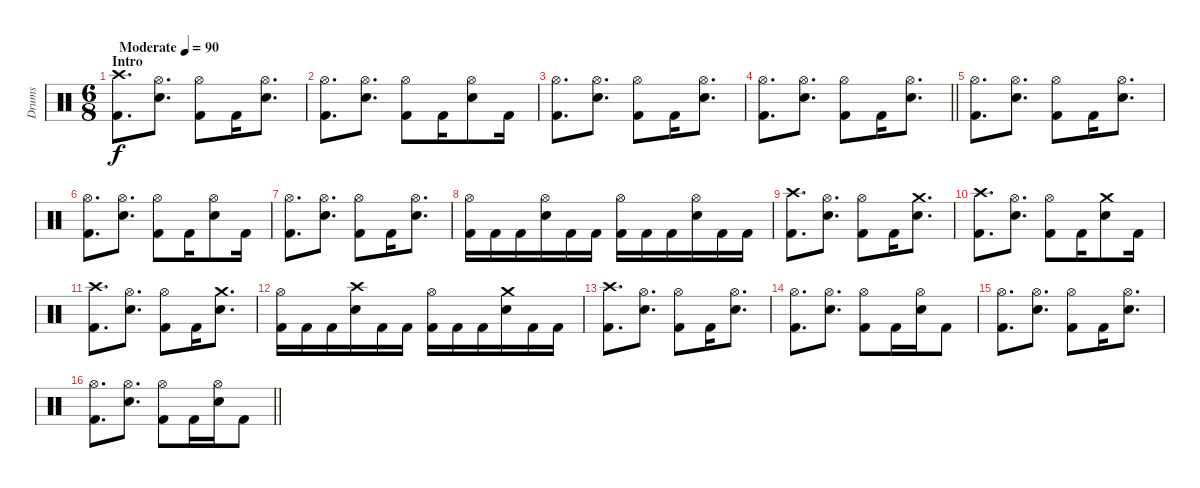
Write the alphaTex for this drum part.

\track ("Drums" "Drums") {instrument percussion}
\staff {score}
\articulation defaults
\ts (6 8)
\section ("" "Intro")
\tempo (90 "Moderate")
\clef neutral
\ks c
("Kick (hit) 2" "Crash high (hit)").8{d dy f} ("Electric Snare (hit)" "Hi-Hat (open)").8{d} ("Kick (hit) 2" "Hi-Hat (open)").8 "Kick (hit) 2".16 ("Electric Snare (hit)" "Hi-Hat (open)").8{d} |
("Kick (hit) 2" "Hi-Hat (open)").8{d} ("Electric Snare (hit)" "Hi-Hat (open)").8{d} ("Kick (hit) 2" "Hi-Hat (open)").8 "Kick (hit) 2".16 ("Electric Snare (hit)" "Hi-Hat (open)").8 "Kick (hit) 2".16 |
("Kick (hit) 2" "Hi-Hat (open)").8{d} ("Electric Snare (hit)" "Hi-Hat (open)").8{d} ("Kick (hit) 2" "Hi-Hat (open)").8 "Kick (hit) 2".16 ("Electric Snare (hit)" "Hi-Hat (open)").8{d} |
\barLineRight lightlight
("Kick (hit) 2" "Hi-Hat (open)").8{d} ("Electric Snare (hit)" "Hi-Hat (open)").8{d} ("Kick (hit) 2" "Hi-Hat (open)").8 "Kick (hit) 2".16 ("Electric Snare (hit)" "Hi-Hat (open)").8{d} |
\section ("" "")
("Kick (hit) 2" "Hi-Hat (open)").8{d} ("Electric Snare (hit)" "Hi-Hat (open)").8{d} ("Kick (hit) 2" "Hi-Hat (open)").8 "Kick (hit) 2".16 ("Electric Snare (hit)" "Hi-Hat (open)").8{d} |
("Kick (hit) 2" "Hi-Hat (open)").8{d} ("Electric Snare (hit)" "Hi-Hat (open)").8{d} ("Kick (hit) 2" "Hi-Hat (open)").8 "Kick (hit) 2".16 ("Electric Snare (hit)" "Hi-Hat (open)").8 "Kick (hit) 2".16 |
("Kick (hit) 2" "Hi-Hat (open)").8{d} ("Electric Snare (hit)" "Hi-Hat (open)").8{d} ("Kick (hit) 2" "Hi-Hat (open)").8 "Kick (hit) 2".16 ("Electric Snare (hit)" "Hi-Hat (open)").8{d} |
("Kick (hit) 2" "Hi-Hat (open)").16 "Kick (hit) 2".16 "Kick (hit) 2".16 ("Electric Snare (hit)" "Hi-Hat (open)").16 "Kick (hit) 2".16 "Kick (hit) 2".16 ("Kick (hit) 2" "Hi-Hat (open)").16 "Kick (hit) 2".16 "Kick (hit) 2".16 ("Electric Snare (hit)" "Hi-Hat (open)").16 "Kick (hit) 2".16 "Kick (hit) 2".16 |
("Kick (hit) 2" "Crash high (hit)").8{d} ("Electric Snare (hit)" "Hi-Hat (open)").8{d} ("Kick (hit) 2" "Hi-Hat (open)").8 "Kick (hit) 2".16 ("Electric Snare (hit)" "Crash medium (hit)").8{d} |
("Kick (hit) 2" "Crash high (hit)").8{d} ("Electric Snare (hit)" "Hi-Hat (open)").8{d} ("Kick (hit) 2" "Hi-Hat (open)").8 "Kick (hit) 2".16 ("Electric Snare (hit)" "Crash medium (hit)").8 "Kick (hit) 2".16 |
("Kick (hit) 2" "Crash high (hit)").8{d} ("Electric Snare (hit)" "Hi-Hat (open)").8{d} ("Kick (hit) 2" "Hi-Hat (open)").8 "Kick (hit) 2".16 ("Electric Snare (hit)" "Crash medium (hit)").8{d} |
("Kick (hit) 2" "Hi-Hat (open)").16 "Kick (hit) 2".16 "Kick (hit) 2".16 ("Electric Snare (hit)" "Crash high (hit)").16 "Kick (hit) 2".16 "Kick (hit) 2".16 ("Kick (hit) 2" "Hi-Hat (open)").16 "Kick (hit) 2".16 "Kick (hit) 2".16 ("Electric Snare (hit)" "Crash medium (hit)").16 "Kick (hit) 2".16 "Kick (hit) 2".16 |
("Kick (hit) 2" "Crash high (hit)").8{d} ("Electric Snare (hit)" "Hi-Hat (open)").8{d} ("Kick (hit) 2" "Hi-Hat (open)").8 "Kick (hit) 2".16 ("Electric Snare (hit)" "Hi-Hat (open)").8{d} |
("Kick (hit) 2" "Hi-Hat (open)").8{d} ("Electric Snare (hit)" "Hi-Hat (open)").8{d} ("Kick (hit) 2" "Hi-Hat (open)").8 "Kick (hit) 2".16 ("Electric Snare (hit)" "Hi-Hat (open)").16 "Kick (hit) 2".8 |
("Kick (hit) 2" "Hi-Hat (open)").8{d} ("Electric Snare (hit)" "Hi-Hat (open)").8{d} ("Kick (hit) 2" "Hi-Hat (open)").8 "Kick (hit) 2".16 ("Electric Snare (hit)" "Hi-Hat (open)").8{d} |
\barLineRight lightlight
("Kick (hit) 2" "Hi-Hat (open)").8{d} ("Electric Snare (hit)" "Hi-Hat (open)").8{d} ("Kick (hit) 2" "Hi-Hat (open)").8 "Kick (hit) 2".16 ("Electric Snare (hit)" "Hi-Hat (open)").16 "Kick (hit) 2".8
